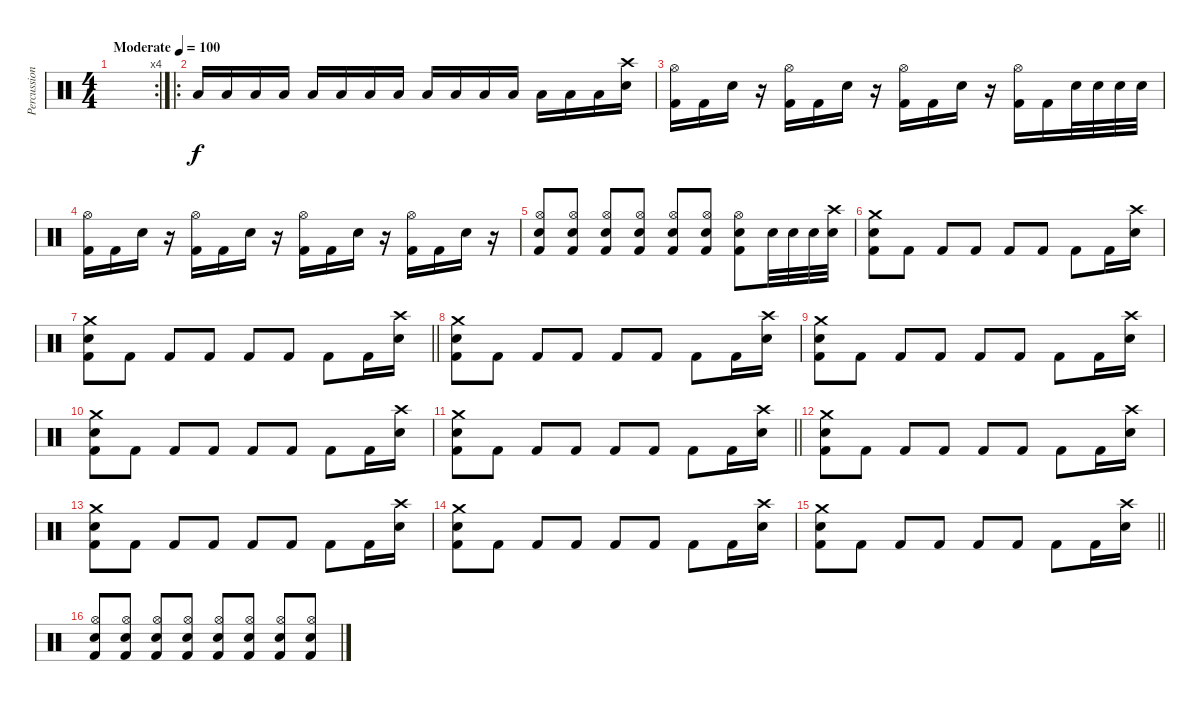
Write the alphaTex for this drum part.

\track ("Percussions" "Percussion") {instrument percussion}
\staff {score}
\articulation defaults
\rc 4
\ts (4 4)
\tempo (100 "Moderate")
\clef neutral
\ks c
|
\ro "Low Tom (hit)".16 "Low Tom (hit)".16 "Low Floor Tom (hit)".16 "Low Floor Tom (hit)".16 "Low Tom (hit)".16 "Low Tom (hit)".16 "Low Floor Tom (hit)".16 "Low Floor Tom (hit)".16 "Low Tom (hit)".16 "Low Tom (hit)".16 "Low Floor Tom (hit)".16 "Low Floor Tom (hit)".16 "Low Tom (hit)".16 "Low Tom (hit)".16 "Low Floor Tom (hit)".16
("Crash high (hit)" "Electric Snare (hit)").16 |
("Hi-Hat (open)" "Kick (hit) 2").16 "Kick (hit) 2".16 "Electric Snare (hit)".16 r.16 ("Hi-Hat (open)" "Kick (hit) 2").16 "Kick (hit) 2".16 "Electric Snare (hit)".16 r.16 ("Hi-Hat (open)" "Kick (hit) 2").16 "Kick (hit) 2".16 "Electric Snare (hit)".16 r.16 ("Hi-Hat (open)" "Kick (hit) 2").16 "Kick (hit) 2".16 "Electric Snare (hit)".32 "Electric Snare (hit)".32 "Electric Snare (hit)".32 "Electric Snare (hit)".32 |
("Hi-Hat (open)" "Kick (hit) 2").16 "Kick (hit) 2".16 "Electric Snare (hit)".16 r.16 ("Hi-Hat (open)" "Kick (hit) 2").16 "Kick (hit) 2".16 "Electric Snare (hit)".16 r.16 ("Hi-Hat (open)" "Kick (hit) 2").16 "Kick (hit) 2".16 "Electric Snare (hit)".16 r.16 ("Hi-Hat (open)" "Kick (hit) 2").16 "Kick (hit) 2".16 "Electric Snare (hit)".16 r.16 |
("Hi-Hat (open)" "Electric Snare (hit)" "Kick (hit) 2").8 ("Hi-Hat (open)" "Electric Snare (hit)" "Kick (hit) 2").8 ("Hi-Hat (open)" "Electric Snare (hit)" "Kick (hit) 2").8 ("Hi-Hat (open)" "Electric Snare (hit)" "Kick (hit) 2").8 ("Hi-Hat (open)" "Electric Snare (hit)" "Kick (hit) 2").8 ("Hi-Hat (open)" "Electric Snare (hit)" "Kick (hit) 2").8 ("Hi-Hat (open)" "Electric Snare (hit)" "Kick (hit) 2").8 "Electric Snare (hit)".32 "Electric Snare (hit)".32 "Electric Snare (hit)".32 ("Crash high (hit)" "Electric Snare (hit)").32 |
("Crash medium (hit)" "Electric Snare (hit)" "Kick (hit) 2").8 "Kick (hit) 2".8 "Kick (hit) 2".8 "Kick (hit) 2".8 "Kick (hit) 2".8 "Kick (hit) 2".8 "Kick (hit) 2".8 "Kick (hit) 2".16 ("Crash high (hit)" "Electric Snare (hit)").16 |
\barLineRight lightlight
("Crash medium (hit)" "Electric Snare (hit)" "Kick (hit) 2").8 "Kick (hit) 2".8 "Kick (hit) 2".8 "Kick (hit) 2".8 "Kick (hit) 2".8 "Kick (hit) 2".8 "Kick (hit) 2".8 "Kick (hit) 2".16 ("Crash high (hit)" "Electric Snare (hit)").16 |
("Crash medium (hit)" "Electric Snare (hit)" "Kick (hit) 2").8 "Kick (hit) 2".8 "Kick (hit) 2".8 "Kick (hit) 2".8 "Kick (hit) 2".8 "Kick (hit) 2".8 "Kick (hit) 2".8 "Kick (hit) 2".16 ("Crash high (hit)" "Electric Snare (hit)").16 |
("Crash medium (hit)" "Electric Snare (hit)" "Kick (hit) 2").8 "Kick (hit) 2".8 "Kick (hit) 2".8 "Kick (hit) 2".8 "Kick (hit) 2".8 "Kick (hit) 2".8 "Kick (hit) 2".8 "Kick (hit) 2".16 ("Crash high (hit)" "Electric Snare (hit)").16 |
("Crash medium (hit)" "Electric Snare (hit)" "Kick (hit) 2").8 "Kick (hit) 2".8 "Kick (hit) 2".8 "Kick (hit) 2".8 "Kick (hit) 2".8 "Kick (hit) 2".8 "Kick (hit) 2".8 "Kick (hit) 2".16 ("Crash high (hit)" "Electric Snare (hit)").16 |
\barLineRight lightlight
("Crash medium (hit)" "Electric Snare (hit)" "Kick (hit) 2").8 "Kick (hit) 2".8 "Kick (hit) 2".8 "Kick (hit) 2".8 "Kick (hit) 2".8 "Kick (hit) 2".8 "Kick (hit) 2".8 "Kick (hit) 2".16 ("Crash high (hit)" "Electric Snare (hit)").16 |
("Crash medium (hit)" "Electric Snare (hit)" "Kick (hit) 2").8 "Kick (hit) 2".8 "Kick (hit) 2".8 "Kick (hit) 2".8 "Kick (hit) 2".8 "Kick (hit) 2".8 "Kick (hit) 2".8 "Kick (hit) 2".16 ("Crash high (hit)" "Electric Snare (hit)").16 |
("Crash medium (hit)" "Electric Snare (hit)" "Kick (hit) 2").8 "Kick (hit) 2".8 "Kick (hit) 2".8 "Kick (hit) 2".8 "Kick (hit) 2".8 "Kick (hit) 2".8 "Kick (hit) 2".8 "Kick (hit) 2".16 ("Crash high (hit)" "Electric Snare (hit)").16 |
("Crash medium (hit)" "Electric Snare (hit)" "Kick (hit) 2").8 "Kick (hit) 2".8 "Kick (hit) 2".8 "Kick (hit) 2".8 "Kick (hit) 2".8 "Kick (hit) 2".8 "Kick (hit) 2".8 "Kick (hit) 2".16 ("Crash high (hit)" "Electric Snare (hit)").16 |
\barLineRight lightlight
("Crash medium (hit)" "Electric Snare (hit)" "Kick (hit) 2").8 "Kick (hit) 2".8 "Kick (hit) 2".8 "Kick (hit) 2".8 "Kick (hit) 2".8 "Kick (hit) 2".8 "Kick (hit) 2".8 "Kick (hit) 2".16 ("Crash high (hit)" "Electric Snare (hit)").16 |
("Hi-Hat (open)" "Electric Snare (hit)" "Kick (hit) 2").8 ("Hi-Hat (open)" "Electric Snare (hit)" "Kick (hit) 2").8 ("Hi-Hat (open)" "Electric Snare (hit)" "Kick (hit) 2").8 ("Hi-Hat (open)" "Electric Snare (hit)" "Kick (hit) 2").8 ("Hi-Hat (open)" "Electric Snare (hit)" "Kick (hit) 2").8 ("Hi-Hat (open)" "Electric Snare (hit)" "Kick (hit) 2").8 ("Hi-Hat (open)" "Electric Snare (hit)" "Kick (hit) 2").8 ("Hi-Hat (open)" "Electric Snare (hit)" "Kick (hit) 2").8
